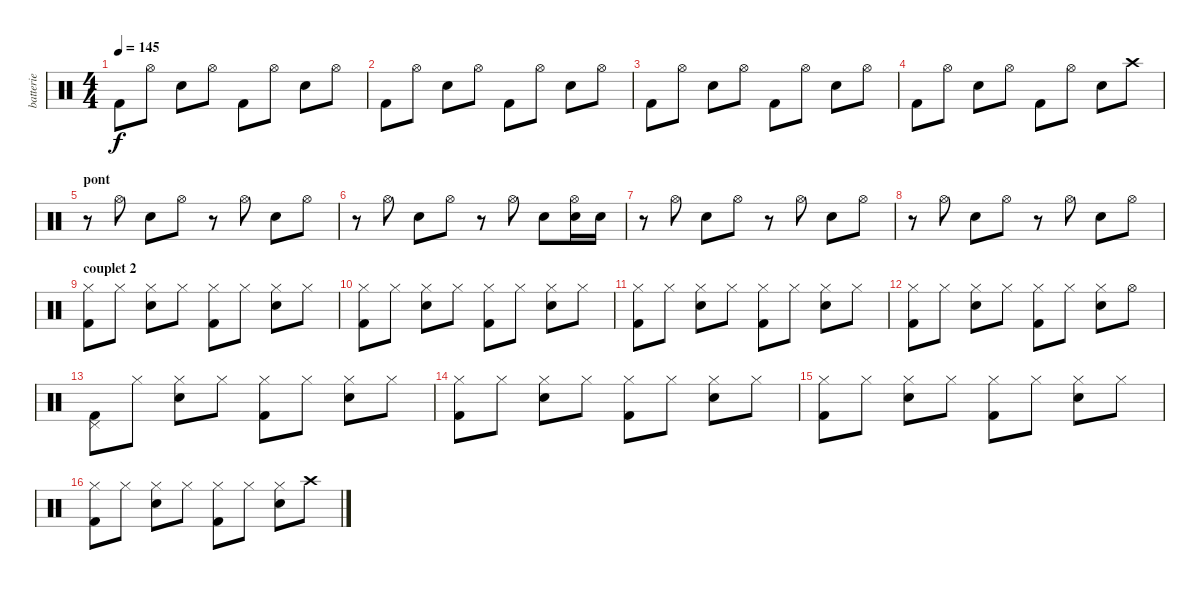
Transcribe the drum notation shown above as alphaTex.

\track ("batterie" "batterie") {instrument percussion}
\staff {score}
\articulation defaults
\ts (4 4)
\tempo 145
\clef neutral
\ks c "Kick (hit) 2".8{dy f} "Hi-Hat (open)".8 "Electric Snare (hit)".8 "Hi-Hat (open)".8 "Kick (hit) 2".8 "Hi-Hat (open)".8 "Electric Snare (hit)".8 "Hi-Hat (open)".8
|
"Kick (hit) 2".8 "Hi-Hat (open)".8 "Electric Snare (hit)".8 "Hi-Hat (open)".8 "Kick (hit) 2".8 "Hi-Hat (open)".8 "Electric Snare (hit)".8 "Hi-Hat (open)".8 |
"Kick (hit) 2".8 "Hi-Hat (open)".8 "Electric Snare (hit)".8 "Hi-Hat (open)".8 "Kick (hit) 2".8 "Hi-Hat (open)".8 "Electric Snare (hit)".8 "Hi-Hat (open)".8 |
"Kick (hit) 2".8 "Hi-Hat (open)".8 "Electric Snare (hit)".8 "Hi-Hat (open)".8 "Kick (hit) 2".8 "Hi-Hat (open)".8 "Electric Snare (hit)".8 "Crash high (hit)".8 |
\section ("" "pont")
r.8 "Hi-Hat (open)".8 "Electric Snare (hit)".8 "Hi-Hat (open)".8 r.8 "Hi-Hat (open)".8 "Electric Snare (hit)".8 "Hi-Hat (open)".8 |
r.8 "Hi-Hat (open)".8 "Electric Snare (hit)".8 "Hi-Hat (open)".8 r.8 "Hi-Hat (open)".8 "Electric Snare (hit)".8 ("Hi-Hat (open)" "Electric Snare (hit)").16 "Electric Snare (hit)".16 |
r.8 "Hi-Hat (open)".8 "Electric Snare (hit)".8 "Hi-Hat (open)".8 r.8 "Hi-Hat (open)".8 "Electric Snare (hit)".8 "Hi-Hat (open)".8 |
r.8 "Hi-Hat (open)".8 "Electric Snare (hit)".8 "Hi-Hat (open)".8 r.8 "Hi-Hat (open)".8 "Electric Snare (hit)".8 "Hi-Hat (open)".8 |
\section ("" "couplet 2")
("Hi-Hat (closed)" "Kick (hit) 2").8 "Hi-Hat (closed)".8 ("Hi-Hat (closed)" "Electric Snare (hit)").8 "Hi-Hat (closed)".8 ("Hi-Hat (closed)" "Kick (hit) 2").8 "Hi-Hat (closed)".8 ("Hi-Hat (closed)" "Electric Snare (hit)").8 "Hi-Hat (closed)".8 |
("Hi-Hat (closed)" "Kick (hit) 2").8 "Hi-Hat (closed)".8 ("Hi-Hat (closed)" "Electric Snare (hit)").8 "Hi-Hat (closed)".8 ("Hi-Hat (closed)" "Kick (hit) 2").8 "Hi-Hat (closed)".8 ("Hi-Hat (closed)" "Electric Snare (hit)").8 "Hi-Hat (closed)".8 |
("Hi-Hat (closed)" "Kick (hit) 2").8 "Hi-Hat (closed)".8 ("Hi-Hat (closed)" "Electric Snare (hit)").8 "Hi-Hat (closed)".8 ("Hi-Hat (closed)" "Kick (hit) 2").8 "Hi-Hat (closed)".8 ("Hi-Hat (closed)" "Electric Snare (hit)").8 "Hi-Hat (closed)".8 |
("Hi-Hat (closed)" "Kick (hit) 2").8 "Hi-Hat (closed)".8 ("Hi-Hat (closed)" "Electric Snare (hit)").8 "Hi-Hat (closed)".8 ("Hi-Hat (closed)" "Kick (hit) 2").8 "Hi-Hat (closed)".8 ("Hi-Hat (closed)" "Electric Snare (hit)").8 "Hi-Hat (open)".8 |
("Pedal Hi-Hat (hit)" "Kick (hit) 2").8 "Hi-Hat (closed)".8 ("Hi-Hat (closed)" "Electric Snare (hit)").8 "Hi-Hat (closed)".8 ("Hi-Hat (closed)" "Kick (hit) 2").8 "Hi-Hat (closed)".8 ("Hi-Hat (closed)" "Electric Snare (hit)").8 "Hi-Hat (closed)".8 |
("Hi-Hat (closed)" "Kick (hit) 2").8 "Hi-Hat (closed)".8 ("Hi-Hat (closed)" "Electric Snare (hit)").8 "Hi-Hat (closed)".8 ("Hi-Hat (closed)" "Kick (hit) 2").8 "Hi-Hat (closed)".8 ("Hi-Hat (closed)" "Electric Snare (hit)").8 "Hi-Hat (closed)".8 |
("Hi-Hat (closed)" "Kick (hit) 2").8 "Hi-Hat (closed)".8 ("Hi-Hat (closed)" "Electric Snare (hit)").8 "Hi-Hat (closed)".8 ("Hi-Hat (closed)" "Kick (hit) 2").8 "Hi-Hat (closed)".8 ("Hi-Hat (closed)" "Electric Snare (hit)").8 "Hi-Hat (closed)".8 |
("Hi-Hat (closed)" "Kick (hit) 2").8 "Hi-Hat (closed)".8 ("Hi-Hat (closed)" "Electric Snare (hit)").8 "Hi-Hat (closed)".8 ("Hi-Hat (closed)" "Kick (hit) 2").8 "Hi-Hat (closed)".8 ("Hi-Hat (closed)" "Electric Snare (hit)").8 "Crash high (hit)".8
